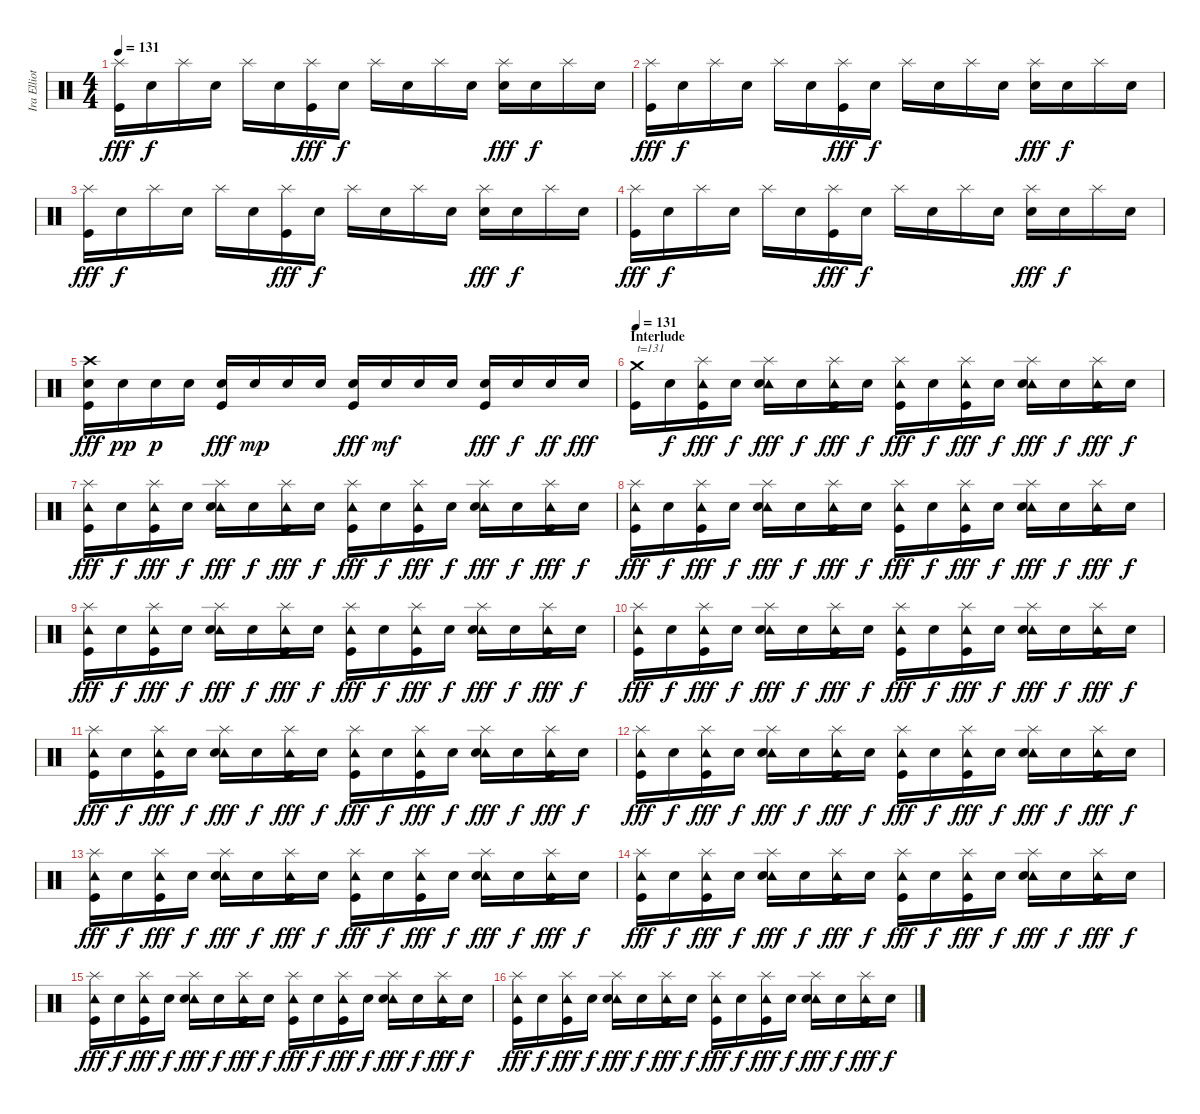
\track ("Ira Elliot - Drums" "Ira Elliot") {instrument percussion}
\staff {score}
\articulation defaults
\ts (4 4)
\tempo 131
\clef neutral
\ks c
("Splash (hit)" "Kick (hit)").16{dy fff} "Snare (hit)".16{dy f} "Splash (hit)".16 "Snare (hit)".16 "Splash (hit)".16 "Snare (hit)".16 ("Splash (hit)" "Kick (hit)").16{dy fff} "Snare (hit)".16{dy f} "Splash (hit)".16 "Snare (hit)".16 "Splash (hit)".16 "Snare (hit)".16 ("Splash (hit)" "Electric Snare (hit)").16{dy fff} "Snare (hit)".16{dy f} "Splash (hit)".16 "Snare (hit)".16 |
("Splash (hit)" "Kick (hit)").16{dy fff} "Snare (hit)".16{dy f} "Splash (hit)".16 "Snare (hit)".16 "Splash (hit)".16 "Snare (hit)".16 ("Splash (hit)" "Kick (hit)").16{dy fff} "Snare (hit)".16{dy f} "Splash (hit)".16 "Snare (hit)".16 "Splash (hit)".16 "Snare (hit)".16 ("Splash (hit)" "Electric Snare (hit)").16{dy fff} "Snare (hit)".16{dy f} "Splash (hit)".16 "Snare (hit)".16 |
("Splash (hit)" "Kick (hit)").16{dy fff} "Snare (hit)".16{dy f} "Splash (hit)".16 "Snare (hit)".16 "Splash (hit)".16 "Snare (hit)".16 ("Splash (hit)" "Kick (hit)").16{dy fff} "Snare (hit)".16{dy f} "Splash (hit)".16 "Snare (hit)".16 "Splash (hit)".16 "Snare (hit)".16 ("Splash (hit)" "Electric Snare (hit)").16{dy fff} "Snare (hit)".16{dy f} "Splash (hit)".16 "Snare (hit)".16 |
("Splash (hit)" "Kick (hit)").16{dy fff} "Snare (hit)".16{dy f} "Splash (hit)".16 "Snare (hit)".16 "Splash (hit)".16 "Snare (hit)".16 ("Splash (hit)" "Kick (hit)").16{dy fff} "Snare (hit)".16{dy f} "Splash (hit)".16 "Snare (hit)".16 "Splash (hit)".16 "Snare (hit)".16 ("Splash (hit)" "Electric Snare (hit)").16{dy fff} "Snare (hit)".16{dy f} "Splash (hit)".16 "Snare (hit)".16 |
("Crash high (hit)" "Electric Snare (hit)" "Kick (hit)").16{dy fff} "Electric Snare (hit)".16{dy pp} "Electric Snare (hit)".16{dy p} "Electric Snare (hit)".16 ("Electric Snare (hit)" "Kick (hit)").16{dy fff} "Electric Snare (hit)".16{dy mp} "Electric Snare (hit)".16 "Electric Snare (hit)".16 ("Electric Snare (hit)" "Kick (hit)").16{dy fff} "Electric Snare (hit)".16{dy mf} "Electric Snare (hit)".16 "Electric Snare (hit)".16 ("Electric Snare (hit)" "Kick (hit)").16{dy fff} "Electric Snare (hit)".16{dy f} "Electric Snare (hit)".16{dy ff} "Electric Snare (hit)".16{dy fff} |
\section ("" "Interlude")
\tempo 131
("Crash medium (hit)" "Kick (hit)").16{txt "t=131" volume 16 balance 8} "Snare (hit)".16{dy f} ("Tambourine (hit)" "Splash (hit)" "Kick (hit)").16{dy fff} "Snare (hit)".16{dy f} ("Tambourine (hit)" "Splash (hit)" "Electric Snare (hit)").16{dy fff} "Snare (hit)".16{dy f} ("Tambourine (hit)" "Splash (hit)" "Kick (hit)").16{dy fff} "Snare (hit)".16{dy f} ("Tambourine (hit)" "Splash (hit)" "Kick (hit)").16{dy fff} "Snare (hit)".16{dy f} ("Tambourine (hit)" "Splash (hit)" "Kick (hit)").16{dy fff} "Snare (hit)".16{dy f} ("Tambourine (hit)" "Splash (hit)" "Electric Snare (hit)").16{dy fff} "Snare (hit)".16{dy f} ("Tambourine (hit)" "Splash (hit)" "Kick (hit)").16{dy fff} "Snare (hit)".16{dy f} |
("Tambourine (hit)" "Splash (hit)" "Kick (hit)").16{dy fff} "Snare (hit)".16{dy f} ("Tambourine (hit)" "Splash (hit)" "Kick (hit)").16{dy fff} "Snare (hit)".16{dy f} ("Tambourine (hit)" "Splash (hit)" "Electric Snare (hit)").16{dy fff} "Snare (hit)".16{dy f} ("Tambourine (hit)" "Splash (hit)" "Kick (hit)").16{dy fff} "Snare (hit)".16{dy f} ("Tambourine (hit)" "Splash (hit)" "Kick (hit)").16{dy fff} "Snare (hit)".16{dy f} ("Tambourine (hit)" "Splash (hit)" "Kick (hit)").16{dy fff} "Snare (hit)".16{dy f} ("Tambourine (hit)" "Splash (hit)" "Electric Snare (hit)").16{dy fff} "Snare (hit)".16{dy f} ("Tambourine (hit)" "Splash (hit)" "Kick (hit)").16{dy fff} "Snare (hit)".16{dy f} |
("Tambourine (hit)" "Splash (hit)" "Kick (hit)").16{dy fff} "Snare (hit)".16{dy f} ("Tambourine (hit)" "Splash (hit)" "Kick (hit)").16{dy fff} "Snare (hit)".16{dy f} ("Tambourine (hit)" "Splash (hit)" "Electric Snare (hit)").16{dy fff} "Snare (hit)".16{dy f} ("Tambourine (hit)" "Splash (hit)" "Kick (hit)").16{dy fff} "Snare (hit)".16{dy f} ("Tambourine (hit)" "Splash (hit)" "Kick (hit)").16{dy fff} "Snare (hit)".16{dy f} ("Tambourine (hit)" "Splash (hit)" "Kick (hit)").16{dy fff} "Snare (hit)".16{dy f} ("Tambourine (hit)" "Splash (hit)" "Electric Snare (hit)").16{dy fff} "Snare (hit)".16{dy f} ("Tambourine (hit)" "Splash (hit)" "Kick (hit)").16{dy fff} "Snare (hit)".16{dy f} |
("Tambourine (hit)" "Splash (hit)" "Kick (hit)").16{dy fff} "Snare (hit)".16{dy f} ("Tambourine (hit)" "Splash (hit)" "Kick (hit)").16{dy fff} "Snare (hit)".16{dy f} ("Tambourine (hit)" "Splash (hit)" "Electric Snare (hit)").16{dy fff} "Snare (hit)".16{dy f} ("Tambourine (hit)" "Splash (hit)" "Kick (hit)").16{dy fff} "Snare (hit)".16{dy f} ("Tambourine (hit)" "Splash (hit)" "Kick (hit)").16{dy fff} "Snare (hit)".16{dy f} ("Tambourine (hit)" "Splash (hit)" "Kick (hit)").16{dy fff} "Snare (hit)".16{dy f} ("Tambourine (hit)" "Splash (hit)" "Electric Snare (hit)").16{dy fff} "Snare (hit)".16{dy f} ("Tambourine (hit)" "Splash (hit)" "Kick (hit)").16{dy fff} "Snare (hit)".16{dy f} |
("Tambourine (hit)" "Splash (hit)" "Kick (hit)").16{dy fff} "Snare (hit)".16{dy f} ("Tambourine (hit)" "Splash (hit)" "Kick (hit)").16{dy fff} "Snare (hit)".16{dy f} ("Tambourine (hit)" "Splash (hit)" "Electric Snare (hit)").16{dy fff} "Snare (hit)".16{dy f} ("Tambourine (hit)" "Splash (hit)" "Kick (hit)").16{dy fff} "Snare (hit)".16{dy f} ("Tambourine (hit)" "Splash (hit)" "Kick (hit)").16{dy fff} "Snare (hit)".16{dy f} ("Tambourine (hit)" "Splash (hit)" "Kick (hit)").16{dy fff} "Snare (hit)".16{dy f} ("Tambourine (hit)" "Splash (hit)" "Electric Snare (hit)").16{dy fff} "Snare (hit)".16{dy f} ("Tambourine (hit)" "Splash (hit)" "Kick (hit)").16{dy fff} "Snare (hit)".16{dy f} |
("Tambourine (hit)" "Splash (hit)" "Kick (hit)").16{dy fff} "Snare (hit)".16{dy f} ("Tambourine (hit)" "Splash (hit)" "Kick (hit)").16{dy fff} "Snare (hit)".16{dy f} ("Tambourine (hit)" "Splash (hit)" "Electric Snare (hit)").16{dy fff} "Snare (hit)".16{dy f} ("Tambourine (hit)" "Splash (hit)" "Kick (hit)").16{dy fff} "Snare (hit)".16{dy f} ("Tambourine (hit)" "Splash (hit)" "Kick (hit)").16{dy fff} "Snare (hit)".16{dy f} ("Tambourine (hit)" "Splash (hit)" "Kick (hit)").16{dy fff} "Snare (hit)".16{dy f} ("Tambourine (hit)" "Splash (hit)" "Electric Snare (hit)").16{dy fff} "Snare (hit)".16{dy f} ("Tambourine (hit)" "Splash (hit)" "Kick (hit)").16{dy fff} "Snare (hit)".16{dy f} |
("Tambourine (hit)" "Splash (hit)" "Kick (hit)").16{dy fff} "Snare (hit)".16{dy f} ("Tambourine (hit)" "Splash (hit)" "Kick (hit)").16{dy fff} "Snare (hit)".16{dy f} ("Tambourine (hit)" "Splash (hit)" "Electric Snare (hit)").16{dy fff} "Snare (hit)".16{dy f} ("Tambourine (hit)" "Splash (hit)" "Kick (hit)").16{dy fff} "Snare (hit)".16{dy f} ("Tambourine (hit)" "Splash (hit)" "Kick (hit)").16{dy fff} "Snare (hit)".16{dy f} ("Tambourine (hit)" "Splash (hit)" "Kick (hit)").16{dy fff} "Snare (hit)".16{dy f} ("Tambourine (hit)" "Splash (hit)" "Electric Snare (hit)").16{dy fff} "Snare (hit)".16{dy f} ("Tambourine (hit)" "Splash (hit)" "Kick (hit)").16{dy fff} "Snare (hit)".16{dy f} |
("Tambourine (hit)" "Splash (hit)" "Kick (hit)").16{dy fff} "Snare (hit)".16{dy f} ("Tambourine (hit)" "Splash (hit)" "Kick (hit)").16{dy fff} "Snare (hit)".16{dy f} ("Tambourine (hit)" "Splash (hit)" "Electric Snare (hit)").16{dy fff} "Snare (hit)".16{dy f} ("Tambourine (hit)" "Splash (hit)" "Kick (hit)").16{dy fff} "Snare (hit)".16{dy f} ("Tambourine (hit)" "Splash (hit)" "Kick (hit)").16{dy fff} "Snare (hit)".16{dy f} ("Tambourine (hit)" "Splash (hit)" "Kick (hit)").16{dy fff} "Snare (hit)".16{dy f} ("Tambourine (hit)" "Splash (hit)" "Electric Snare (hit)").16{dy fff} "Snare (hit)".16{dy f} ("Tambourine (hit)" "Splash (hit)" "Kick (hit)").16{dy fff} "Snare (hit)".16{dy f} |
("Tambourine (hit)" "Splash (hit)" "Kick (hit)").16{dy fff} "Snare (hit)".16{dy f} ("Tambourine (hit)" "Splash (hit)" "Kick (hit)").16{dy fff} "Snare (hit)".16{dy f} ("Tambourine (hit)" "Splash (hit)" "Electric Snare (hit)").16{dy fff} "Snare (hit)".16{dy f} ("Tambourine (hit)" "Splash (hit)" "Kick (hit)").16{dy fff} "Snare (hit)".16{dy f} ("Tambourine (hit)" "Splash (hit)" "Kick (hit)").16{dy fff} "Snare (hit)".16{dy f} ("Tambourine (hit)" "Splash (hit)" "Kick (hit)").16{dy fff} "Snare (hit)".16{dy f} ("Tambourine (hit)" "Splash (hit)" "Electric Snare (hit)").16{dy fff} "Snare (hit)".16{dy f} ("Tambourine (hit)" "Splash (hit)" "Kick (hit)").16{dy fff} "Snare (hit)".16{dy f} |
("Tambourine (hit)" "Splash (hit)" "Kick (hit)").16{dy fff} "Snare (hit)".16{dy f} ("Tambourine (hit)" "Splash (hit)" "Kick (hit)").16{dy fff} "Snare (hit)".16{dy f} ("Tambourine (hit)" "Splash (hit)" "Electric Snare (hit)").16{dy fff} "Snare (hit)".16{dy f} ("Tambourine (hit)" "Splash (hit)" "Kick (hit)").16{dy fff} "Snare (hit)".16{dy f} ("Tambourine (hit)" "Splash (hit)" "Kick (hit)").16{dy fff} "Snare (hit)".16{dy f} ("Tambourine (hit)" "Splash (hit)" "Kick (hit)").16{dy fff} "Snare (hit)".16{dy f} ("Tambourine (hit)" "Splash (hit)" "Electric Snare (hit)").16{dy fff} "Snare (hit)".16{dy f} ("Tambourine (hit)" "Splash (hit)" "Kick (hit)").16{dy fff} "Snare (hit)".16{dy f} |
("Tambourine (hit)" "Splash (hit)" "Kick (hit)").16{dy fff} "Snare (hit)".16{dy f} ("Tambourine (hit)" "Splash (hit)" "Kick (hit)").16{dy fff} "Snare (hit)".16{dy f} ("Tambourine (hit)" "Splash (hit)" "Electric Snare (hit)").16{dy fff} "Snare (hit)".16{dy f} ("Tambourine (hit)" "Splash (hit)" "Kick (hit)").16{dy fff} "Snare (hit)".16{dy f} ("Tambourine (hit)" "Splash (hit)" "Kick (hit)").16{dy fff} "Snare (hit)".16{dy f} ("Tambourine (hit)" "Splash (hit)" "Kick (hit)").16{dy fff} "Snare (hit)".16{dy f} ("Tambourine (hit)" "Splash (hit)" "Electric Snare (hit)").16{dy fff} "Snare (hit)".16{dy f} ("Tambourine (hit)" "Splash (hit)" "Kick (hit)").16{dy fff} "Snare (hit)".16{dy f}
